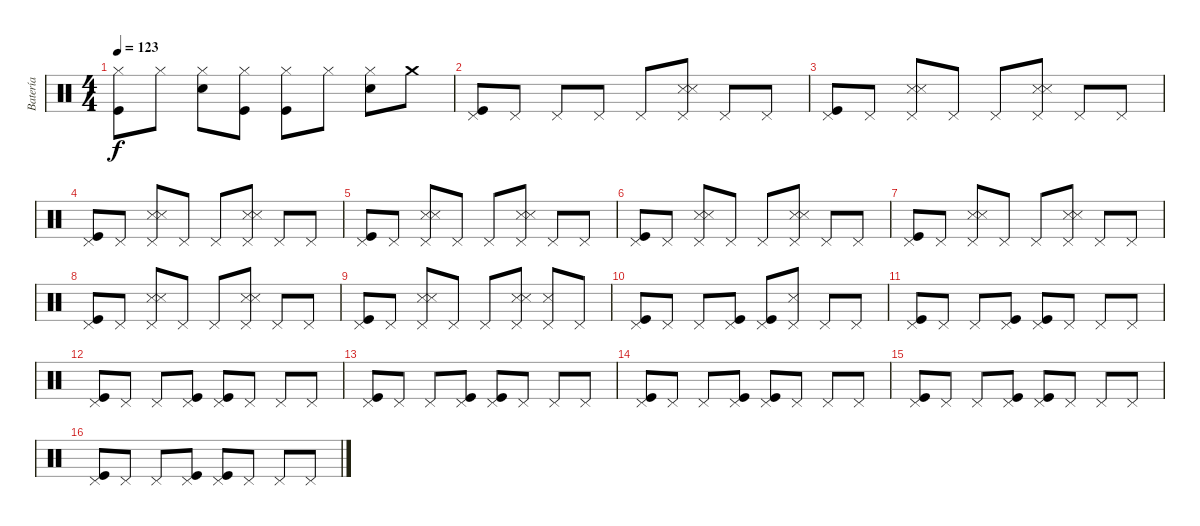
\track ("Batería" "Batería") {instrument percussion}
\staff {score}
\articulation defaults
\ts (4 4)
\tempo 123
\clef neutral
\ks c
("Hi-Hat (closed)" "Kick (hit)").8{dy f} "Hi-Hat (closed)".8 ("Hi-Hat (closed)" "Snare (hit) 2").8 ("Hi-Hat (closed)" "Kick (hit)").8 ("Hi-Hat (closed)" "Kick (hit)").8 "Hi-Hat (closed)".8 ("Hi-Hat (closed)" "Snare (hit) 2").8 "Crash medium (hit)".8 |
("Pedal Hi-Hat (hit)" "Kick (hit)").8 "Pedal Hi-Hat (hit)".8 "Pedal Hi-Hat (hit)".8 "Pedal Hi-Hat (hit)".8 "Pedal Hi-Hat (hit)".8 ("Pedal Hi-Hat (hit)" "Snare (side stick) 3" "Snare (side stick) 3").8 "Pedal Hi-Hat (hit)".8 "Pedal Hi-Hat (hit)".8 |
("Pedal Hi-Hat (hit)" "Kick (hit)").8 "Pedal Hi-Hat (hit)".8 ("Pedal Hi-Hat (hit)" "Snare (side stick) 3" "Snare (side stick) 3").8 "Pedal Hi-Hat (hit)".8 "Pedal Hi-Hat (hit)".8 ("Pedal Hi-Hat (hit)" "Snare (side stick) 3" "Snare (side stick) 3").8 "Pedal Hi-Hat (hit)".8 "Pedal Hi-Hat (hit)".8 |
("Pedal Hi-Hat (hit)" "Kick (hit)").8 "Pedal Hi-Hat (hit)".8 ("Pedal Hi-Hat (hit)" "Snare (side stick) 3" "Snare (side stick) 3").8 "Pedal Hi-Hat (hit)".8 "Pedal Hi-Hat (hit)".8 ("Pedal Hi-Hat (hit)" "Snare (side stick) 3" "Snare (side stick) 3").8 "Pedal Hi-Hat (hit)".8 "Pedal Hi-Hat (hit)".8 |
("Pedal Hi-Hat (hit)" "Kick (hit)").8 "Pedal Hi-Hat (hit)".8 ("Pedal Hi-Hat (hit)" "Snare (side stick) 3" "Snare (side stick) 3").8 "Pedal Hi-Hat (hit)".8 "Pedal Hi-Hat (hit)".8 ("Pedal Hi-Hat (hit)" "Snare (side stick) 3" "Snare (side stick) 3").8 "Pedal Hi-Hat (hit)".8 "Pedal Hi-Hat (hit)".8 |
("Pedal Hi-Hat (hit)" "Kick (hit)").8 "Pedal Hi-Hat (hit)".8 ("Pedal Hi-Hat (hit)" "Snare (side stick) 3" "Snare (side stick) 3").8 "Pedal Hi-Hat (hit)".8 "Pedal Hi-Hat (hit)".8 ("Pedal Hi-Hat (hit)" "Snare (side stick) 3" "Snare (side stick) 3").8 "Pedal Hi-Hat (hit)".8 "Pedal Hi-Hat (hit)".8 |
("Pedal Hi-Hat (hit)" "Kick (hit)").8 "Pedal Hi-Hat (hit)".8 ("Pedal Hi-Hat (hit)" "Snare (side stick) 3" "Snare (side stick) 3").8 "Pedal Hi-Hat (hit)".8 "Pedal Hi-Hat (hit)".8 ("Pedal Hi-Hat (hit)" "Snare (side stick) 3" "Snare (side stick) 3").8 "Pedal Hi-Hat (hit)".8 "Pedal Hi-Hat (hit)".8 |
("Pedal Hi-Hat (hit)" "Kick (hit)").8 "Pedal Hi-Hat (hit)".8 ("Pedal Hi-Hat (hit)" "Snare (side stick) 3" "Snare (side stick) 3").8 "Pedal Hi-Hat (hit)".8 "Pedal Hi-Hat (hit)".8 ("Pedal Hi-Hat (hit)" "Snare (side stick) 3" "Snare (side stick) 3").8 "Pedal Hi-Hat (hit)".8 "Pedal Hi-Hat (hit)".8 |
("Pedal Hi-Hat (hit)" "Kick (hit)").8 "Pedal Hi-Hat (hit)".8 ("Pedal Hi-Hat (hit)" "Snare (side stick) 3" "Snare (side stick) 3").8 "Pedal Hi-Hat (hit)".8 "Pedal Hi-Hat (hit)".8 ("Pedal Hi-Hat (hit)" "Snare (side stick) 3" "Snare (side stick) 3").8 ("Pedal Hi-Hat (hit)" "Snare (side stick) 3").8 "Pedal Hi-Hat (hit)".8 |
("Pedal Hi-Hat (hit)" "Kick (hit)").8 "Pedal Hi-Hat (hit)".8 "Pedal Hi-Hat (hit)".8 ("Pedal Hi-Hat (hit)" "Kick (hit)").8 ("Pedal Hi-Hat (hit)" "Kick (hit)").8 ("Pedal Hi-Hat (hit)" "Snare (side stick) 3").8 "Pedal Hi-Hat (hit)".8 "Pedal Hi-Hat (hit)".8 |
("Pedal Hi-Hat (hit)" "Kick (hit)").8 "Pedal Hi-Hat (hit)".8 "Pedal Hi-Hat (hit)".8 ("Pedal Hi-Hat (hit)" "Kick (hit)").8 ("Pedal Hi-Hat (hit)" "Kick (hit)").8 "Pedal Hi-Hat (hit)".8 "Pedal Hi-Hat (hit)".8 "Pedal Hi-Hat (hit)".8 |
("Pedal Hi-Hat (hit)" "Kick (hit)").8 "Pedal Hi-Hat (hit)".8 "Pedal Hi-Hat (hit)".8 ("Pedal Hi-Hat (hit)" "Kick (hit)").8 ("Pedal Hi-Hat (hit)" "Kick (hit)").8 "Pedal Hi-Hat (hit)".8 "Pedal Hi-Hat (hit)".8 "Pedal Hi-Hat (hit)".8 |
("Pedal Hi-Hat (hit)" "Kick (hit)").8 "Pedal Hi-Hat (hit)".8 "Pedal Hi-Hat (hit)".8 ("Pedal Hi-Hat (hit)" "Kick (hit)").8 ("Pedal Hi-Hat (hit)" "Kick (hit)").8 "Pedal Hi-Hat (hit)".8 "Pedal Hi-Hat (hit)".8 "Pedal Hi-Hat (hit)".8 |
("Pedal Hi-Hat (hit)" "Kick (hit)").8 "Pedal Hi-Hat (hit)".8 "Pedal Hi-Hat (hit)".8 ("Pedal Hi-Hat (hit)" "Kick (hit)").8 ("Pedal Hi-Hat (hit)" "Kick (hit)").8 "Pedal Hi-Hat (hit)".8 "Pedal Hi-Hat (hit)".8 "Pedal Hi-Hat (hit)".8 |
("Pedal Hi-Hat (hit)" "Kick (hit)").8 "Pedal Hi-Hat (hit)".8 "Pedal Hi-Hat (hit)".8 ("Pedal Hi-Hat (hit)" "Kick (hit)").8 ("Pedal Hi-Hat (hit)" "Kick (hit)").8 "Pedal Hi-Hat (hit)".8 "Pedal Hi-Hat (hit)".8 "Pedal Hi-Hat (hit)".8 |
("Pedal Hi-Hat (hit)" "Kick (hit)").8 "Pedal Hi-Hat (hit)".8 "Pedal Hi-Hat (hit)".8 ("Pedal Hi-Hat (hit)" "Kick (hit)").8 ("Pedal Hi-Hat (hit)" "Kick (hit)").8 "Pedal Hi-Hat (hit)".8 "Pedal Hi-Hat (hit)".8 "Pedal Hi-Hat (hit)".8
